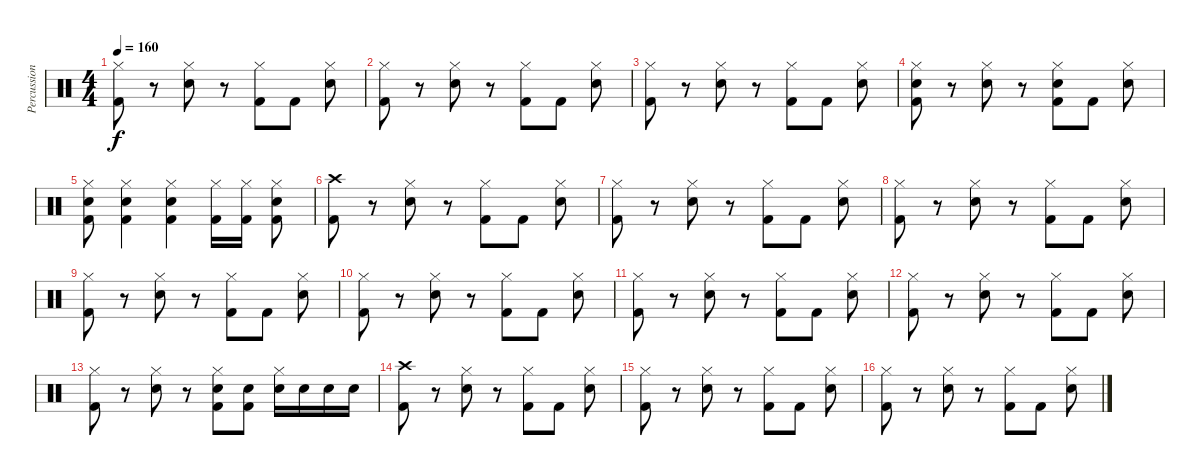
\track ("Percussion" "Percussion") {instrument percussion}
\staff {score}
\articulation defaults
\ts (4 4)
\tempo 160
\clef neutral
\ks c
("Hi-Hat (closed)" "Kick (hit) 2").8{dy f} r.8 ("Hi-Hat (closed)" "Electric Snare (hit)").8 r.8 ("Hi-Hat (closed)" "Kick (hit) 2").8 "Kick (hit) 2".8 ("Hi-Hat (closed)" "Electric Snare (hit)").8 |
("Hi-Hat (closed)" "Kick (hit) 2").8 r.8 ("Hi-Hat (closed)" "Electric Snare (hit)").8 r.8 ("Hi-Hat (closed)" "Kick (hit) 2").8 "Kick (hit) 2".8 ("Hi-Hat (closed)" "Electric Snare (hit)").8 |
("Hi-Hat (closed)" "Kick (hit) 2").8 r.8 ("Hi-Hat (closed)" "Electric Snare (hit)").8 r.8 ("Hi-Hat (closed)" "Kick (hit) 2").8 "Kick (hit) 2".8 ("Hi-Hat (closed)" "Electric Snare (hit)").8 |
("Hi-Hat (closed)" "Electric Snare (hit)" "Kick (hit) 2").8 r.8 ("Hi-Hat (closed)" "Electric Snare (hit)").8 r.8 ("Hi-Hat (closed)" "Electric Snare (hit)" "Kick (hit) 2").8 "Kick (hit) 2".8 ("Hi-Hat (closed)" "Electric Snare (hit)").8 |
("Hi-Hat (closed)" "Kick (hit) 2" "Electric Snare (hit)").8 ("Hi-Hat (closed)" "Kick (hit) 2" "Electric Snare (hit)").4 ("Hi-Hat (closed)" "Kick (hit) 2" "Electric Snare (hit)").4 ("Hi-Hat (closed)" "Kick (hit) 2").16 ("Hi-Hat (closed)" "Kick (hit) 2").16 ("Hi-Hat (closed)" "Kick (hit) 2" "Electric Snare (hit)").8 |
("Crash high (hit)" "Kick (hit) 2").8 r.8 ("Hi-Hat (closed)" "Electric Snare (hit)").8 r.8 ("Hi-Hat (closed)" "Kick (hit) 2").8 "Kick (hit) 2".8 ("Hi-Hat (closed)" "Electric Snare (hit)").8 |
("Hi-Hat (closed)" "Kick (hit) 2").8 r.8 ("Hi-Hat (closed)" "Electric Snare (hit)").8 r.8 ("Hi-Hat (closed)" "Kick (hit) 2").8 "Kick (hit) 2".8 ("Hi-Hat (closed)" "Electric Snare (hit)").8 |
("Hi-Hat (closed)" "Kick (hit) 2").8 r.8 ("Hi-Hat (closed)" "Electric Snare (hit)").8 r.8 ("Hi-Hat (closed)" "Kick (hit) 2").8 "Kick (hit) 2".8 ("Hi-Hat (closed)" "Electric Snare (hit)").8 |
("Hi-Hat (closed)" "Kick (hit) 2").8 r.8 ("Hi-Hat (closed)" "Electric Snare (hit)").8 r.8 ("Hi-Hat (closed)" "Kick (hit) 2").8 "Kick (hit) 2".8 ("Hi-Hat (closed)" "Electric Snare (hit)").8 |
("Hi-Hat (closed)" "Kick (hit) 2").8 r.8 ("Hi-Hat (closed)" "Electric Snare (hit)").8 r.8 ("Hi-Hat (closed)" "Kick (hit) 2").8 "Kick (hit) 2".8 ("Hi-Hat (closed)" "Electric Snare (hit)").8 |
("Hi-Hat (closed)" "Kick (hit) 2").8 r.8 ("Hi-Hat (closed)" "Electric Snare (hit)").8 r.8 ("Hi-Hat (closed)" "Kick (hit) 2").8 "Kick (hit) 2".8 ("Hi-Hat (closed)" "Electric Snare (hit)").8 |
("Hi-Hat (closed)" "Kick (hit) 2").8 r.8 ("Hi-Hat (closed)" "Electric Snare (hit)").8 r.8 ("Hi-Hat (closed)" "Kick (hit) 2").8 "Kick (hit) 2".8 ("Hi-Hat (closed)" "Electric Snare (hit)").8 |
("Hi-Hat (closed)" "Kick (hit) 2").8 r.8 ("Hi-Hat (closed)" "Electric Snare (hit)").8 r.8 ("Hi-Hat (closed)" "Electric Snare (hit)" "Kick (hit) 2").8 ("Electric Snare (hit)" "Kick (hit) 2").8 ("Hi-Hat (closed)" "Electric Snare (hit)").16 "Electric Snare (hit)".16 "Electric Snare (hit)".16 "Electric Snare (hit)".16 |
("Crash high (hit)" "Kick (hit) 2").8 r.8 ("Hi-Hat (closed)" "Electric Snare (hit)").8 r.8 ("Hi-Hat (closed)" "Kick (hit) 2").8 "Kick (hit) 2".8 ("Hi-Hat (closed)" "Electric Snare (hit)").8 |
("Hi-Hat (closed)" "Kick (hit) 2").8 r.8 ("Hi-Hat (closed)" "Electric Snare (hit)").8 r.8 ("Hi-Hat (closed)" "Kick (hit) 2").8 "Kick (hit) 2".8 ("Hi-Hat (closed)" "Electric Snare (hit)").8 |
("Hi-Hat (closed)" "Kick (hit) 2").8 r.8 ("Hi-Hat (closed)" "Electric Snare (hit)").8 r.8 ("Hi-Hat (closed)" "Kick (hit) 2").8 "Kick (hit) 2".8 ("Hi-Hat (closed)" "Electric Snare (hit)").8
